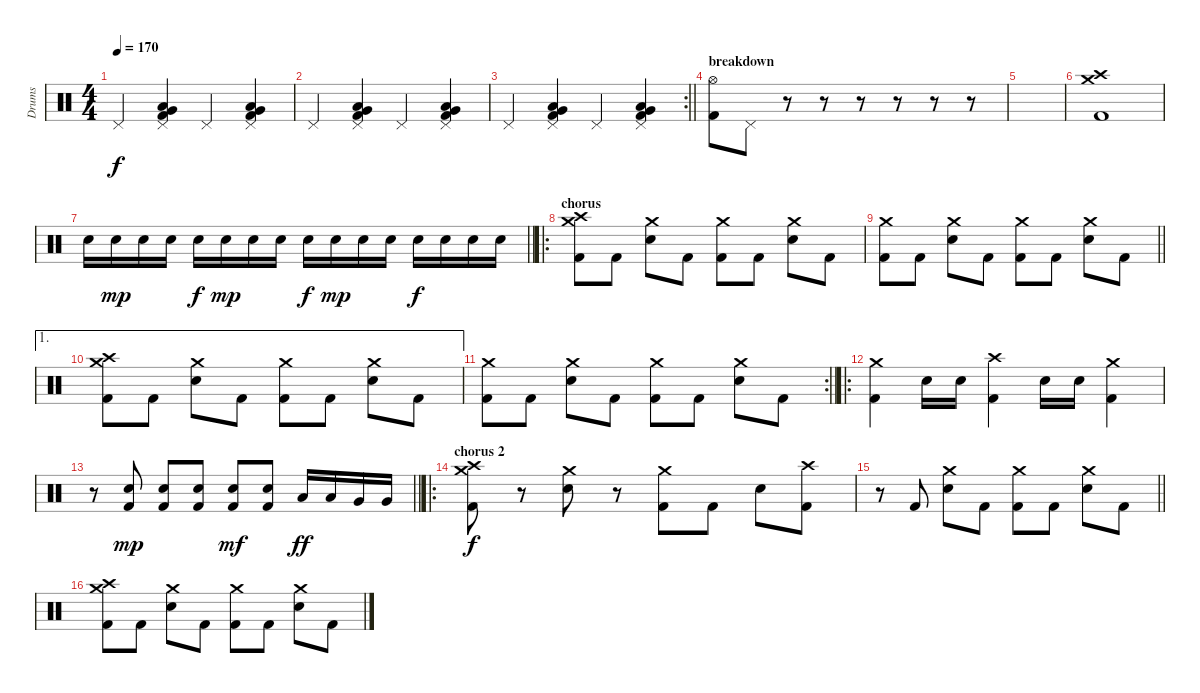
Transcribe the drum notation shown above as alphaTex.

\track ("Drums" "Drums") {instrument percussion}
\staff {score}
\articulation defaults
\ts (4 4)
\tempo 170
\clef neutral
\ks c "Pedal Hi-Hat (hit)".4{dy f}
("Low Tom (hit)" "Pedal Hi-Hat (hit)" "Very Low Tom (hit)" "Kick (hit) 2").4 "Pedal Hi-Hat (hit)".4 ("Low Tom (hit)" "Pedal Hi-Hat (hit)" "Very Low Tom (hit)" "Kick (hit) 2").4 |
"Pedal Hi-Hat (hit)".4 ("Low Tom (hit)" "Pedal Hi-Hat (hit)" "Very Low Tom (hit)" "Kick (hit) 2").4 "Pedal Hi-Hat (hit)".4 ("Low Tom (hit)" "Pedal Hi-Hat (hit)" "Very Low Tom (hit)" "Kick (hit) 2").4 |
\rc 2
\barLineRight lightlight "Pedal Hi-Hat (hit)".4
("Low Tom (hit)" "Pedal Hi-Hat (hit)" "Very Low Tom (hit)" "Kick (hit) 2").4 "Pedal Hi-Hat (hit)".4 ("Low Tom (hit)" "Pedal Hi-Hat (hit)" "Very Low Tom (hit)" "Kick (hit) 2").4 |
\section ("" "breakdown")
("Kick (hit) 2" "Hi-Hat (open)").8 "Pedal Hi-Hat (hit)".8 r.8 r.8 r.8 r.8 r.8 r.8 |
|
("Crash high (hit)" "Crash medium (hit)" "Kick (hit) 2").1 |
\barLineRight lightlight "Electric Snare (hit)".16 "Electric Snare (hit)".16{dy mp} "Electric Snare (hit)".16 "Electric Snare (hit)".16 "Electric Snare (hit)".16{dy f} "Electric Snare (hit)".16{dy mp} "Electric Snare (hit)".16 "Electric Snare (hit)".16 "Electric Snare (hit)".16{dy f} "Electric Snare (hit)".16{dy mp} "Electric Snare (hit)".16 "Electric Snare (hit)".16 "Electric Snare (hit)".16{dy f} "Electric Snare (hit)".16 "Electric Snare (hit)".16 "Electric Snare (hit)".16
|
\ro
\section ("" "chorus")
("Crash high (hit)" "Crash medium (hit)" "Kick (hit) 2").8 "Kick (hit) 2".8 ("Crash medium (hit)" "Electric Snare (hit)").8 "Kick (hit) 2".8 ("Crash medium (hit)" "Kick (hit) 2").8 "Kick (hit) 2".8 ("Crash medium (hit)" "Electric Snare (hit)").8 "Kick (hit) 2".8 |
\barLineRight lightlight
("Crash medium (hit)" "Kick (hit) 2").8 "Kick (hit) 2".8 ("Crash medium (hit)" "Electric Snare (hit)").8 "Kick (hit) 2".8 ("Crash medium (hit)" "Kick (hit) 2").8 "Kick (hit) 2".8 ("Crash medium (hit)" "Electric Snare (hit)").8 "Kick (hit) 2".8 |
\ae 1
("Crash high (hit)" "Crash medium (hit)" "Kick (hit) 2").8 "Kick (hit) 2".8 ("Crash medium (hit)" "Electric Snare (hit)").8 "Kick (hit) 2".8 ("Crash medium (hit)" "Kick (hit) 2").8 "Kick (hit) 2".8 ("Crash medium (hit)" "Electric Snare (hit)").8 "Kick (hit) 2".8 |
\rc 2
\barLineRight lightlight
("Crash medium (hit)" "Kick (hit) 2").8 "Kick (hit) 2".8 ("Crash medium (hit)" "Electric Snare (hit)").8 "Kick (hit) 2".8 ("Crash medium (hit)" "Kick (hit) 2").8 "Kick (hit) 2".8 ("Crash medium (hit)" "Electric Snare (hit)").8 "Kick (hit) 2".8 |
\ro
("Crash medium (hit)" "Kick (hit) 2").4 "Electric Snare (hit)".16 "Electric Snare (hit)".16 ("Crash high (hit)" "Kick (hit) 2").4 "Electric Snare (hit)".16 "Electric Snare (hit)".16 ("Crash medium (hit)" "Kick (hit) 2").4 |
\barLineRight lightlight
r.8 ("Electric Snare (hit)" "Kick (hit) 2").8{dy mp} ("Electric Snare (hit)" "Kick (hit) 2").8 ("Electric Snare (hit)" "Kick (hit) 2").8 ("Electric Snare (hit)" "Kick (hit) 2").8{dy mf} ("Electric Snare (hit)" "Kick (hit) 2").8 "Low Tom (hit)".16{dy ff} "Low Tom (hit)".16 "Very Low Tom (hit)".16 "Very Low Tom (hit)".16 |
\ro
\section ("" "chorus 2")
("Crash high (hit)" "Crash medium (hit)" "Kick (hit) 2").8{dy f} r.8 ("Crash medium (hit)" "Electric Snare (hit)").8 r.8 ("Crash medium (hit)" "Kick (hit) 2").8 "Kick (hit) 2".8 "Electric Snare (hit)".8 ("Crash high (hit)" "Kick (hit) 2").8 |
\barLineRight lightlight
r.8 "Kick (hit) 2".8 ("Crash medium (hit)" "Electric Snare (hit)").8 "Kick (hit) 2".8 ("Crash medium (hit)" "Kick (hit) 2").8 "Kick (hit) 2".8 ("Crash medium (hit)" "Electric Snare (hit)").8 "Kick (hit) 2".8 |
("Crash high (hit)" "Crash medium (hit)" "Kick (hit) 2").8 "Kick (hit) 2".8 ("Crash medium (hit)" "Electric Snare (hit)").8 "Kick (hit) 2".8 ("Crash medium (hit)" "Kick (hit) 2").8 "Kick (hit) 2".8 ("Crash medium (hit)" "Electric Snare (hit)").8 "Kick (hit) 2".8
